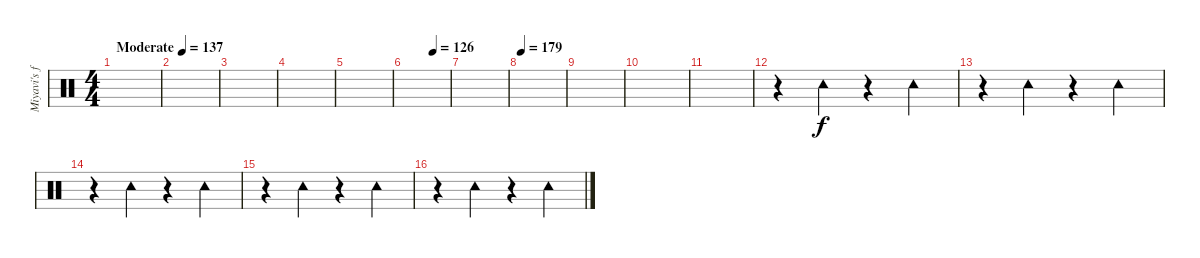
\track ("Miyavi's foot" "Miyavi's f") {instrument percussion}
\staff {score}
\articulation defaults
\ts (4 4)
\tempo (137 "Moderate")
\clef neutral
\ks c
|
|
|
|
|
\tempo (126 0.625)
|
|
\tempo 179
|
|
|
|
r.4 "Tambourine (hit)".4 r.4 "Tambourine (hit)".4 |
r.4 "Tambourine (hit)".4 r.4 "Tambourine (hit)".4 |
r.4 "Tambourine (hit)".4 r.4 "Tambourine (hit)".4 |
r.4 "Tambourine (hit)".4 r.4 "Tambourine (hit)".4 |
r.4 "Tambourine (hit)".4 r.4 "Tambourine (hit)".4
